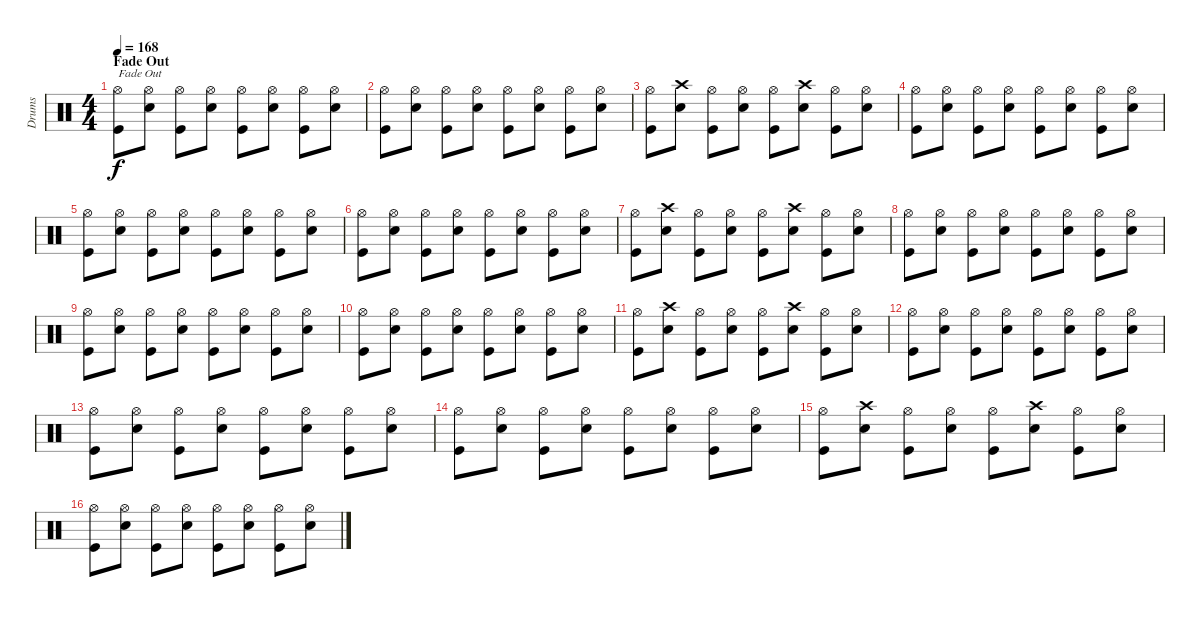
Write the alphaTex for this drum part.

\track ("Drums" "Drums") {instrument percussion}
\staff {score}
\articulation defaults
\ts (4 4)
\section ("" "Fade Out")
\tempo 168
\clef neutral
\ks c
("Hi-Hat (open)" "Kick (hit)").8{txt "Fade Out" dy f volume 15} ("Hi-Hat (open)" "Snare (hit) 2").8 ("Hi-Hat (open)" "Kick (hit)").8{volume 14} ("Hi-Hat (open)" "Snare (hit) 2").8 ("Hi-Hat (open)" "Kick (hit)").8 ("Hi-Hat (open)" "Snare (hit) 2").8 ("Hi-Hat (open)" "Kick (hit)").8 ("Hi-Hat (open)" "Snare (hit) 2").8 |
("Hi-Hat (open)" "Kick (hit)").8{volume 14} ("Hi-Hat (open)" "Snare (hit) 2").8 ("Hi-Hat (open)" "Kick (hit)").8 ("Hi-Hat (open)" "Snare (hit) 2").8 ("Hi-Hat (open)" "Kick (hit)").8 ("Hi-Hat (open)" "Snare (hit) 2").8 ("Hi-Hat (open)" "Kick (hit)").8 ("Hi-Hat (open)" "Snare (hit) 2").8 |
("Hi-Hat (open)" "Kick (hit)").8{volume 14} ("Crash high (hit)" "Snare (hit) 2").8 ("Hi-Hat (open)" "Kick (hit)").8{volume 13} ("Hi-Hat (open)" "Snare (hit) 2").8 ("Hi-Hat (open)" "Kick (hit)").8 ("Crash high (hit)" "Snare (hit) 2").8 ("Hi-Hat (open)" "Kick (hit)").8 ("Hi-Hat (open)" "Snare (hit) 2").8 |
("Hi-Hat (open)" "Kick (hit)").8{volume 13} ("Hi-Hat (open)" "Snare (hit) 2").8 ("Hi-Hat (open)" "Kick (hit)").8 ("Hi-Hat (open)" "Snare (hit) 2").8 ("Hi-Hat (open)" "Kick (hit)").8 ("Hi-Hat (open)" "Snare (hit) 2").8 ("Hi-Hat (open)" "Kick (hit)").8 ("Hi-Hat (open)" "Snare (hit) 2").8 |
("Hi-Hat (open)" "Kick (hit)").8{volume 13} ("Hi-Hat (open)" "Snare (hit) 2").8 ("Hi-Hat (open)" "Kick (hit)").8{volume 12} ("Hi-Hat (open)" "Snare (hit) 2").8 ("Hi-Hat (open)" "Kick (hit)").8 ("Hi-Hat (open)" "Snare (hit) 2").8 ("Hi-Hat (open)" "Kick (hit)").8 ("Hi-Hat (open)" "Snare (hit) 2").8 |
("Hi-Hat (open)" "Kick (hit)").8{volume 12} ("Hi-Hat (open)" "Snare (hit) 2").8 ("Hi-Hat (open)" "Kick (hit)").8 ("Hi-Hat (open)" "Snare (hit) 2").8 ("Hi-Hat (open)" "Kick (hit)").8 ("Hi-Hat (open)" "Snare (hit) 2").8 ("Hi-Hat (open)" "Kick (hit)").8 ("Hi-Hat (open)" "Snare (hit) 2").8 |
("Hi-Hat (open)" "Kick (hit)").8{volume 12} ("Crash high (hit)" "Snare (hit) 2").8 ("Hi-Hat (open)" "Kick (hit)").8{volume 11} ("Hi-Hat (open)" "Snare (hit) 2").8 ("Hi-Hat (open)" "Kick (hit)").8 ("Crash high (hit)" "Snare (hit) 2").8 ("Hi-Hat (open)" "Kick (hit)").8 ("Hi-Hat (open)" "Snare (hit) 2").8 |
("Hi-Hat (open)" "Kick (hit)").8{volume 11} ("Hi-Hat (open)" "Snare (hit) 2").8 ("Hi-Hat (open)" "Kick (hit)").8 ("Hi-Hat (open)" "Snare (hit) 2").8 ("Hi-Hat (open)" "Kick (hit)").8 ("Hi-Hat (open)" "Snare (hit) 2").8 ("Hi-Hat (open)" "Kick (hit)").8 ("Hi-Hat (open)" "Snare (hit) 2").8 |
("Hi-Hat (open)" "Kick (hit)").8{volume 11} ("Hi-Hat (open)" "Snare (hit) 2").8 ("Hi-Hat (open)" "Kick (hit)").8{volume 10} ("Hi-Hat (open)" "Snare (hit) 2").8 ("Hi-Hat (open)" "Kick (hit)").8 ("Hi-Hat (open)" "Snare (hit) 2").8 ("Hi-Hat (open)" "Kick (hit)").8 ("Hi-Hat (open)" "Snare (hit) 2").8 |
("Hi-Hat (open)" "Kick (hit)").8{volume 10} ("Hi-Hat (open)" "Snare (hit) 2").8 ("Hi-Hat (open)" "Kick (hit)").8{volume 9} ("Hi-Hat (open)" "Snare (hit) 2").8 ("Hi-Hat (open)" "Kick (hit)").8 ("Hi-Hat (open)" "Snare (hit) 2").8 ("Hi-Hat (open)" "Kick (hit)").8 ("Hi-Hat (open)" "Snare (hit) 2").8 |
("Hi-Hat (open)" "Kick (hit)").8{volume 9} ("Crash high (hit)" "Snare (hit) 2").8 ("Hi-Hat (open)" "Kick (hit)").8{volume 8} ("Hi-Hat (open)" "Snare (hit) 2").8 ("Hi-Hat (open)" "Kick (hit)").8 ("Crash high (hit)" "Snare (hit) 2").8 ("Hi-Hat (open)" "Kick (hit)").8 ("Hi-Hat (open)" "Snare (hit) 2").8 |
("Hi-Hat (open)" "Kick (hit)").8{volume 8} ("Hi-Hat (open)" "Snare (hit) 2").8 ("Hi-Hat (open)" "Kick (hit)").8{volume 7} ("Hi-Hat (open)" "Snare (hit) 2").8 ("Hi-Hat (open)" "Kick (hit)").8 ("Hi-Hat (open)" "Snare (hit) 2").8 ("Hi-Hat (open)" "Kick (hit)").8 ("Hi-Hat (open)" "Snare (hit) 2").8 |
("Hi-Hat (open)" "Kick (hit)").8{volume 7} ("Hi-Hat (open)" "Snare (hit) 2").8 ("Hi-Hat (open)" "Kick (hit)").8{volume 6} ("Hi-Hat (open)" "Snare (hit) 2").8 ("Hi-Hat (open)" "Kick (hit)").8 ("Hi-Hat (open)" "Snare (hit) 2").8 ("Hi-Hat (open)" "Kick (hit)").8 ("Hi-Hat (open)" "Snare (hit) 2").8 |
("Hi-Hat (open)" "Kick (hit)").8{volume 6} ("Hi-Hat (open)" "Snare (hit) 2").8 ("Hi-Hat (open)" "Kick (hit)").8{volume 5} ("Hi-Hat (open)" "Snare (hit) 2").8 ("Hi-Hat (open)" "Kick (hit)").8 ("Hi-Hat (open)" "Snare (hit) 2").8 ("Hi-Hat (open)" "Kick (hit)").8 ("Hi-Hat (open)" "Snare (hit) 2").8 |
("Hi-Hat (open)" "Kick (hit)").8{volume 5} ("Crash high (hit)" "Snare (hit) 2").8 ("Hi-Hat (open)" "Kick (hit)").8{volume 4} ("Hi-Hat (open)" "Snare (hit) 2").8 ("Hi-Hat (open)" "Kick (hit)").8 ("Crash high (hit)" "Snare (hit) 2").8 ("Hi-Hat (open)" "Kick (hit)").8 ("Hi-Hat (open)" "Snare (hit) 2").8 |
("Hi-Hat (open)" "Kick (hit)").8{volume 4} ("Hi-Hat (open)" "Snare (hit) 2").8 ("Hi-Hat (open)" "Kick (hit)").8{volume 3} ("Hi-Hat (open)" "Snare (hit) 2").8 ("Hi-Hat (open)" "Kick (hit)").8 ("Hi-Hat (open)" "Snare (hit) 2").8 ("Hi-Hat (open)" "Kick (hit)").8 ("Hi-Hat (open)" "Snare (hit) 2").8
